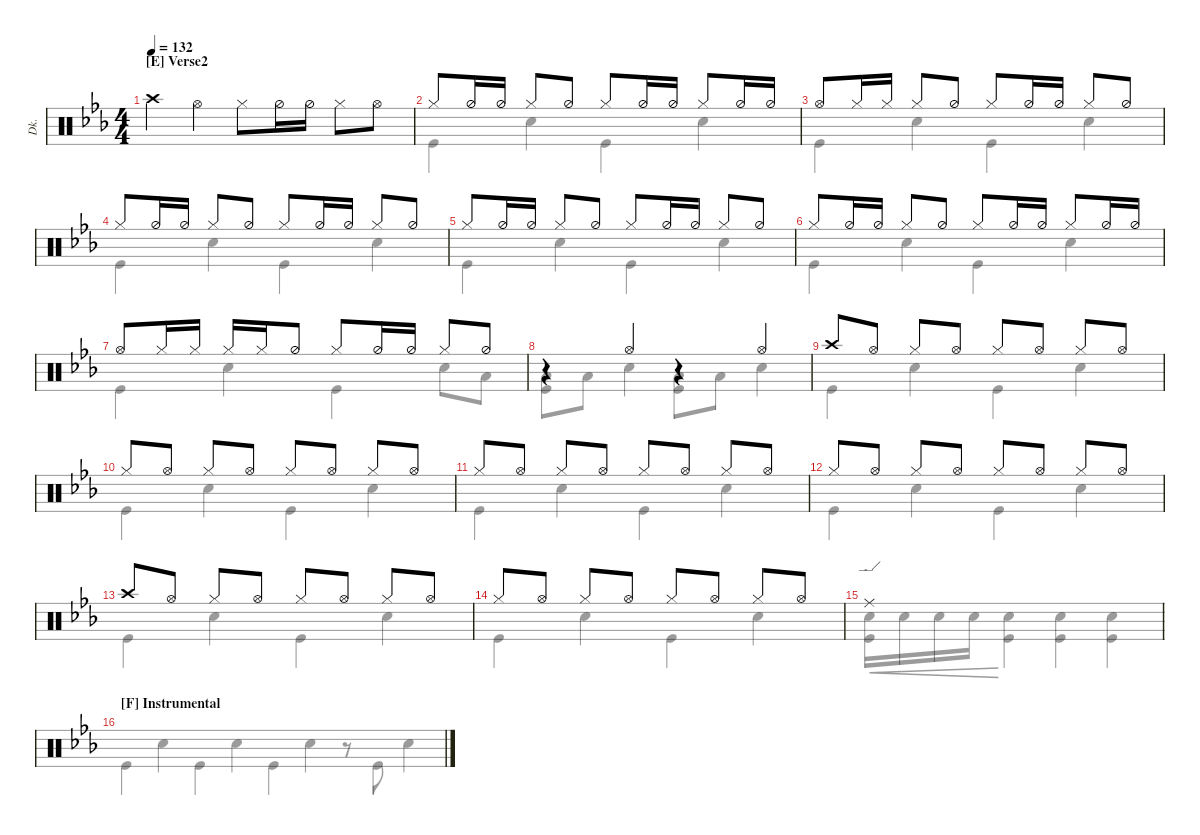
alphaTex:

\defaultSystemsLayout 4
\hideDynamics
\bracketExtendMode nobrackets
\otherSystemsTrackNameOrientation horizontal
\track ("Drumkit" "Dk.") {instrument percussion}
\staff {score}
\articulation defaults
\voice
\ts (4 4)
\section ("E" "Verse2")
\tempo 132
\clef neutral
\ks eb "Crash high (hit)".4{dy mf} "Hi-Hat (open)".4 "Hi-Hat (closed)".8 "Hi-Hat (half)".16 "Hi-Hat (half)".16 "Hi-Hat (closed)".8 "Hi-Hat (open)".8
|
"Hi-Hat (closed)".8{dy f} "Hi-Hat (half)".16 "Hi-Hat (half)".16 "Hi-Hat (closed)".8 "Hi-Hat (half)".8 "Hi-Hat (closed)".8 "Hi-Hat (half)".16 "Hi-Hat (half)".16 "Hi-Hat (closed)".8 "Hi-Hat (half)".16 "Hi-Hat (half)".16 |
"Hi-Hat (open)".8 "Hi-Hat (closed)".16 "Hi-Hat (closed)".16 "Hi-Hat (closed)".8 "Hi-Hat (half)".8 "Hi-Hat (closed)".8 "Hi-Hat (half)".16 "Hi-Hat (half)".16 "Hi-Hat (closed)".8 "Hi-Hat (half)".8 |
"Hi-Hat (closed)".8 "Hi-Hat (half)".16 "Hi-Hat (half)".16 "Hi-Hat (closed)".8 "Hi-Hat (half)".8 "Hi-Hat (closed)".8 "Hi-Hat (half)".16 "Hi-Hat (half)".16 "Hi-Hat (closed)".8 "Hi-Hat (half)".8 |
"Hi-Hat (closed)".8 "Hi-Hat (half)".16 "Hi-Hat (half)".16 "Hi-Hat (closed)".8 "Hi-Hat (half)".8 "Hi-Hat (closed)".8 "Hi-Hat (half)".16 "Hi-Hat (half)".16 "Hi-Hat (closed)".8 "Hi-Hat (half)".8 |
"Hi-Hat (closed)".8 "Hi-Hat (half)".16 "Hi-Hat (half)".16 "Hi-Hat (closed)".8 "Hi-Hat (half)".8 "Hi-Hat (closed)".8 "Hi-Hat (half)".16 "Hi-Hat (half)".16 "Hi-Hat (closed)".8 "Hi-Hat (half)".16 "Hi-Hat (half)".16 |
"Hi-Hat (open)".8 "Hi-Hat (closed)".16 "Hi-Hat (closed)".16 "Hi-Hat (closed)".16 "Hi-Hat (closed)".16 "Hi-Hat (half)".8 "Hi-Hat (closed)".8 "Hi-Hat (half)".16 "Hi-Hat (half)".16 "Hi-Hat (closed)".8 "Hi-Hat (half)".8 |
r.4 "Hi-Hat (open)".4{dy mf} r.4 "Hi-Hat (open)".4 |
"Crash high (hit)".8 "Hi-Hat (open)".8 "Hi-Hat (closed)".8 "Hi-Hat (open)".8 "Hi-Hat (closed)".8 "Hi-Hat (open)".8 "Hi-Hat (closed)".8 "Hi-Hat (open)".8 |
"Hi-Hat (closed)".8 "Hi-Hat (open)".8 "Hi-Hat (closed)".8 "Hi-Hat (open)".8 "Hi-Hat (closed)".8 "Hi-Hat (open)".8 "Hi-Hat (closed)".8 "Hi-Hat (open)".8 |
"Hi-Hat (closed)".8 "Hi-Hat (open)".8 "Hi-Hat (closed)".8 "Hi-Hat (open)".8 "Hi-Hat (closed)".8 "Hi-Hat (open)".8 "Hi-Hat (closed)".8 "Hi-Hat (open)".8 |
"Hi-Hat (closed)".8 "Hi-Hat (open)".8 "Hi-Hat (closed)".8 "Hi-Hat (open)".8 "Hi-Hat (closed)".8 "Hi-Hat (open)".8 "Hi-Hat (closed)".8 "Hi-Hat (open)".8 |
"Crash high (hit)".8 "Hi-Hat (open)".8 "Hi-Hat (closed)".8 "Hi-Hat (open)".8 "Hi-Hat (closed)".8 "Hi-Hat (open)".8 "Hi-Hat (closed)".8 "Hi-Hat (open)".8 |
"Hi-Hat (closed)".8 "Hi-Hat (open)".8 "Hi-Hat (closed)".8 "Hi-Hat (open)".8 "Hi-Hat (closed)".8 "Hi-Hat (open)".8 "Hi-Hat (closed)".8 "Hi-Hat (open)".8 |
"Ride (edge)".1{dy ff} |
\section ("F" "Instrumental")
\voice
\clef neutral
\ottava regular
\simile none
\ks eb "Kick (hit)".4{dy mf} "Snare (hit) 2".4 "Kick (hit)".4 "Snare (hit) 2".4
|
"Kick (hit)".4 "Snare (hit) 2".4 "Kick (hit)".4 "Snare (hit) 2".4 |
"Kick (hit)".4 "Snare (hit) 2".4 "Kick (hit)".4 "Snare (hit) 2".4 |
"Kick (hit)".4 "Snare (hit) 2".4 "Kick (hit)".4 "Snare (hit) 2".4 |
"Kick (hit)".4 "Snare (hit) 2".4 "Kick (hit)".4 "Snare (hit) 2".4 |
"Kick (hit)".4 "Snare (hit) 2".4 "Kick (hit)".4 "Snare (hit) 2".4 |
"Kick (hit)".4 "Snare (hit) 2".4 "Kick (hit)".4 "Snare (hit) 2".8 "Low Tom (hit)".8 |
("Kick (hit)" "Low Tom (hit)").8 "Low Tom (hit)".8 "Snare (hit) 2".4 ("Kick (hit)" "Low Tom (hit)").8 "Low Tom (hit)".8 "Snare (hit) 2".4 |
"Kick (hit)".4 "Snare (hit) 2".4 "Kick (hit)".4 "Snare (hit) 2".4 |
"Kick (hit)".4 "Snare (hit) 2".4 "Kick (hit)".4 "Snare (hit) 2".4 |
"Kick (hit)".4 "Snare (hit) 2".4 "Kick (hit)".4 "Snare (hit) 2".4 |
"Kick (hit)".4 "Snare (hit) 2".4 "Kick (hit)".4 "Snare (hit) 2".4 |
"Kick (hit)".4 "Snare (hit) 2".4 "Kick (hit)".4 "Snare (hit) 2".4 |
"Kick (hit)".4 "Snare (hit) 2".4 "Kick (hit)".4 "Snare (hit) 2".4 |
("Kick (hit)" "Snare (hit) 2").16{cre} "Snare (hit) 2".16{cre} "Snare (hit) 2".16{cre} "Snare (hit) 2".16{cre} ("Kick (hit)" "Snare (hit) 2").4 ("Kick (hit)" "Snare (hit) 2").4 ("Snare (hit) 2" "Kick (hit)").4 |
"Kick (hit)".4 "Snare (hit) 2".4 r.8 "Kick (hit)".8 "Snare (hit) 2".4
